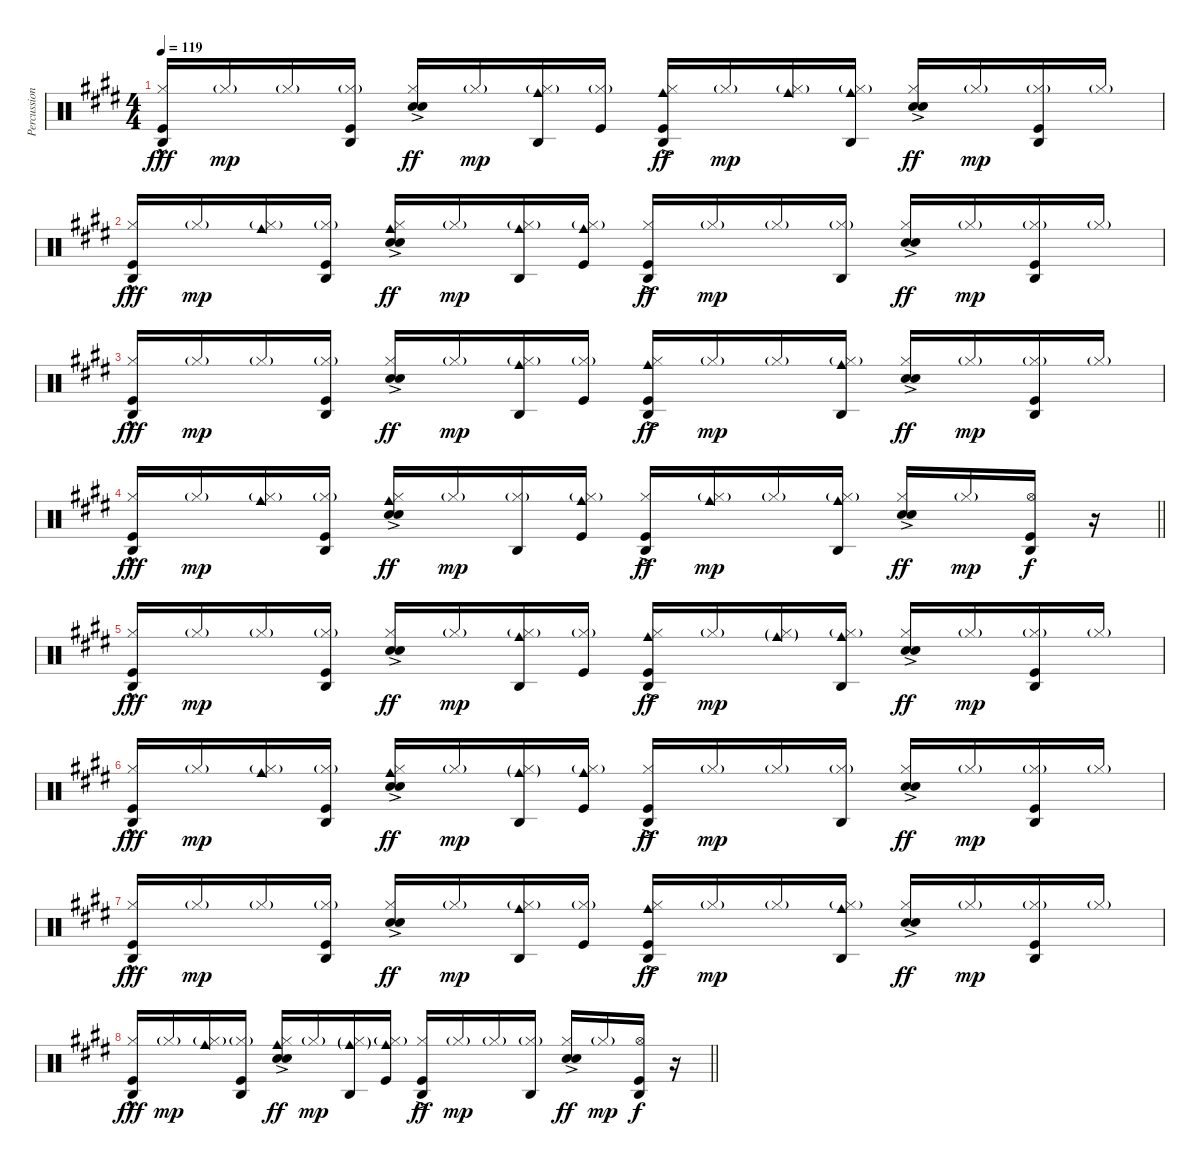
\track ("Percussion" "Percussion") {instrument percussion}
\staff {score}
\articulation defaults
\ts (4 4)
\tempo 119
\clef neutral
\ks e
("Agogo high (hit)" "Hi-Hat (closed)" "Kick (hit)"{hac}).16{dy fff} "Hi-Hat (closed)"{g}.16{dy mp} "Hi-Hat (closed)"{g}.16 ("Agogo high (hit)" "Hi-Hat (closed)"{g} "Kick (hit)").16 ("Hi-Hat (closed)" "Hand Clap (hit)"{ac} "Snare (hit) 2"{ac}).16{dy ff} "Hi-Hat (closed)"{g}.16{dy mp} ("Agogo high (hit)" "Cowbell medium (hit)" "Hi-Hat (closed)"{g}).16 ("Hi-Hat (closed)"{g} "Kick (hit)").16 ("Agogo high (hit)" "Cowbell medium (hit)" "Hi-Hat (closed)" "Kick (hit)"{ac}).16{dy ff} "Hi-Hat (closed)"{g}.16{dy mp} ("Cowbell medium (hit)" "Hi-Hat (closed)"{g}).16 ("Agogo high (hit)" "Cowbell medium (hit)" "Hi-Hat (closed)"{g}).16 ("Hi-Hat (closed)" "Hand Clap (hit)"{ac} "Snare (hit) 2"{ac}).16{dy ff} "Hi-Hat (closed)"{g}.16{dy mp} ("Agogo high (hit)" "Hi-Hat (closed)"{g} "Kick (hit)").16 "Hi-Hat (closed)"{g}.16 |
("Agogo high (hit)" "Hi-Hat (closed)" "Kick (hit)"{hac}).16{dy fff} "Hi-Hat (closed)"{g}.16{dy mp} ("Cowbell medium (hit)" "Hi-Hat (closed)"{g}).16 ("Agogo high (hit)" "Hi-Hat (closed)"{g} "Kick (hit)").16 ("Cowbell medium (hit)" "Hi-Hat (closed)" "Hand Clap (hit)"{ac} "Snare (hit) 2"{ac}).16{dy ff} "Hi-Hat (closed)"{g}.16{dy mp} ("Agogo high (hit)" "Cowbell medium (hit)" "Hi-Hat (closed)"{g}).16 ("Cowbell medium (hit)" "Hi-Hat (closed)"{g} "Kick (hit)").16 ("Agogo high (hit)" "Hi-Hat (closed)" "Kick (hit)"{ac}).16{dy ff} "Hi-Hat (closed)"{g}.16{dy mp} "Hi-Hat (closed)"{g}.16 ("Agogo high (hit)" "Hi-Hat (closed)"{g}).16 ("Hi-Hat (closed)" "Hand Clap (hit)"{ac} "Snare (hit) 2"{ac}).16{dy ff} "Hi-Hat (closed)"{g}.16{dy mp} ("Agogo high (hit)" "Hi-Hat (closed)"{g} "Kick (hit)").16 "Hi-Hat (closed)"{g}.16 |
("Agogo high (hit)" "Hi-Hat (closed)" "Kick (hit)"{hac}).16{dy fff} "Hi-Hat (closed)"{g}.16{dy mp} "Hi-Hat (closed)"{g}.16 ("Agogo high (hit)" "Hi-Hat (closed)"{g} "Kick (hit)").16 ("Hi-Hat (closed)" "Hand Clap (hit)"{ac} "Snare (hit) 2"{ac}).16{dy ff} "Hi-Hat (closed)"{g}.16{dy mp} ("Agogo high (hit)" "Cowbell medium (hit)" "Hi-Hat (closed)"{g}).16 ("Hi-Hat (closed)"{g} "Kick (hit)").16 ("Agogo high (hit)" "Cowbell medium (hit)" "Hi-Hat (closed)" "Kick (hit)"{ac}).16{dy ff} "Hi-Hat (closed)"{g}.16{dy mp} "Hi-Hat (closed)"{g}.16 ("Agogo high (hit)" "Cowbell medium (hit)" "Hi-Hat (closed)"{g}).16 ("Hi-Hat (closed)" "Hand Clap (hit)"{ac} "Snare (hit) 2"{ac}).16{dy ff} "Hi-Hat (closed)"{g}.16{dy mp} ("Agogo high (hit)" "Hi-Hat (closed)"{g} "Kick (hit)").16 "Hi-Hat (closed)"{g}.16 |
\barLineRight lightlight
("Agogo high (hit)" "Hi-Hat (closed)" "Kick (hit)"{hac}).16{dy fff} "Hi-Hat (closed)"{g}.16{dy mp} ("Cowbell medium (hit)" "Hi-Hat (closed)"{g}).16 ("Agogo high (hit)" "Hi-Hat (closed)"{g} "Kick (hit)").16 ("Cowbell medium (hit)" "Hi-Hat (closed)" "Hand Clap (hit)"{ac} "Snare (hit) 2"{ac}).16{dy ff} "Hi-Hat (closed)"{g}.16{dy mp} ("Agogo high (hit)" "Hi-Hat (closed)"{g}).16 ("Cowbell medium (hit)" "Hi-Hat (closed)"{g} "Kick (hit)").16 ("Agogo high (hit)" "Hi-Hat (closed)" "Kick (hit)"{ac}).16{dy ff} ("Cowbell medium (hit)" "Hi-Hat (closed)"{g}).16{dy mp} "Hi-Hat (closed)"{g}.16 ("Agogo high (hit)" "Cowbell medium (hit)" "Hi-Hat (closed)"{g}).16 ("Hi-Hat (closed)" "Hand Clap (hit)"{ac} "Snare (hit) 2"{ac}).16{dy ff} "Hi-Hat (closed)"{g}.16{dy mp} ("Agogo high (hit)" "Hi-Hat (open)" "Kick (hit)").16{dy f} r.16 |
("Agogo high (hit)" "Hi-Hat (closed)" "Kick (hit)"{hac}).16{dy fff} "Hi-Hat (closed)"{g}.16{dy mp} "Hi-Hat (closed)"{g}.16 ("Agogo high (hit)" "Hi-Hat (closed)"{g} "Kick (hit)").16 ("Hi-Hat (closed)" "Hand Clap (hit)"{ac} "Snare (hit) 2"{ac}).16{dy ff} "Hi-Hat (closed)"{g}.16{dy mp} ("Agogo high (hit)" "Cowbell medium (hit)" "Hi-Hat (closed)"{g}).16 ("Hi-Hat (closed)"{g} "Kick (hit)").16 ("Agogo high (hit)" "Cowbell medium (hit)" "Hi-Hat (closed)" "Kick (hit)"{ac}).16{dy ff} "Hi-Hat (closed)"{g}.16{dy mp} ("Cowbell medium (hit)"{g} "Hi-Hat (closed)"{g}).16 ("Agogo high (hit)" "Cowbell medium (hit)" "Hi-Hat (closed)"{g}).16 ("Hi-Hat (closed)" "Hand Clap (hit)"{ac} "Snare (hit) 2"{ac}).16{dy ff} "Hi-Hat (closed)"{g}.16{dy mp} ("Agogo high (hit)" "Hi-Hat (closed)"{g} "Kick (hit)").16 "Hi-Hat (closed)"{g}.16 |
("Agogo high (hit)" "Hi-Hat (closed)" "Kick (hit)"{hac}).16{dy fff} "Hi-Hat (closed)"{g}.16{dy mp} ("Cowbell medium (hit)" "Hi-Hat (closed)"{g}).16 ("Agogo high (hit)" "Hi-Hat (closed)"{g} "Kick (hit)").16 ("Cowbell medium (hit)" "Hi-Hat (closed)" "Hand Clap (hit)"{ac} "Snare (hit) 2"{ac}).16{dy ff} "Hi-Hat (closed)"{g}.16{dy mp} ("Agogo high (hit)" "Cowbell medium (hit)"{g} "Hi-Hat (closed)"{g}).16 ("Cowbell medium (hit)" "Hi-Hat (closed)"{g} "Kick (hit)").16 ("Agogo high (hit)" "Hi-Hat (closed)" "Kick (hit)"{ac}).16{dy ff} "Hi-Hat (closed)"{g}.16{dy mp} "Hi-Hat (closed)"{g}.16 ("Agogo high (hit)" "Hi-Hat (closed)"{g}).16 ("Hi-Hat (closed)" "Hand Clap (hit)"{ac} "Snare (hit) 2"{ac}).16{dy ff} "Hi-Hat (closed)"{g}.16{dy mp} ("Agogo high (hit)" "Hi-Hat (closed)"{g} "Kick (hit)").16 "Hi-Hat (closed)"{g}.16 |
("Agogo high (hit)" "Hi-Hat (closed)" "Kick (hit)"{hac}).16{dy fff} "Hi-Hat (closed)"{g}.16{dy mp} "Hi-Hat (closed)"{g}.16 ("Agogo high (hit)" "Hi-Hat (closed)"{g} "Kick (hit)").16 ("Hi-Hat (closed)" "Hand Clap (hit)"{ac} "Snare (hit) 2"{ac}).16{dy ff} "Hi-Hat (closed)"{g}.16{dy mp} ("Agogo high (hit)" "Cowbell medium (hit)" "Hi-Hat (closed)"{g}).16 ("Hi-Hat (closed)"{g} "Kick (hit)").16 ("Agogo high (hit)" "Cowbell medium (hit)" "Hi-Hat (closed)" "Kick (hit)"{ac}).16{dy ff} "Hi-Hat (closed)"{g}.16{dy mp} "Hi-Hat (closed)"{g}.16 ("Agogo high (hit)" "Cowbell medium (hit)" "Hi-Hat (closed)"{g}).16 ("Hi-Hat (closed)" "Hand Clap (hit)"{ac} "Snare (hit) 2"{ac}).16{dy ff} "Hi-Hat (closed)"{g}.16{dy mp} ("Agogo high (hit)" "Hi-Hat (closed)"{g} "Kick (hit)").16 "Hi-Hat (closed)"{g}.16 |
\barLineRight lightlight
("Agogo high (hit)" "Hi-Hat (closed)" "Kick (hit)"{hac}).16{dy fff} "Hi-Hat (closed)"{g}.16{dy mp} ("Cowbell medium (hit)" "Hi-Hat (closed)"{g}).16 ("Agogo high (hit)" "Hi-Hat (closed)"{g} "Kick (hit)").16 ("Cowbell medium (hit)" "Hi-Hat (closed)" "Hand Clap (hit)"{ac} "Snare (hit) 2"{ac}).16{dy ff} "Hi-Hat (closed)"{g}.16{dy mp} ("Agogo high (hit)" "Cowbell medium (hit)"{g} "Hi-Hat (closed)"{g}).16 ("Cowbell medium (hit)" "Hi-Hat (closed)"{g} "Kick (hit)").16 ("Agogo high (hit)" "Hi-Hat (closed)" "Kick (hit)"{ac}).16{dy ff} "Hi-Hat (closed)"{g}.16{dy mp} "Hi-Hat (closed)"{g}.16 ("Agogo high (hit)" "Hi-Hat (closed)"{g}).16 ("Hi-Hat (closed)" "Hand Clap (hit)"{ac} "Snare (hit) 2"{ac}).16{dy ff} "Hi-Hat (closed)"{g}.16{dy mp} ("Agogo high (hit)" "Hi-Hat (open)" "Kick (hit)").16{dy f} r.16
